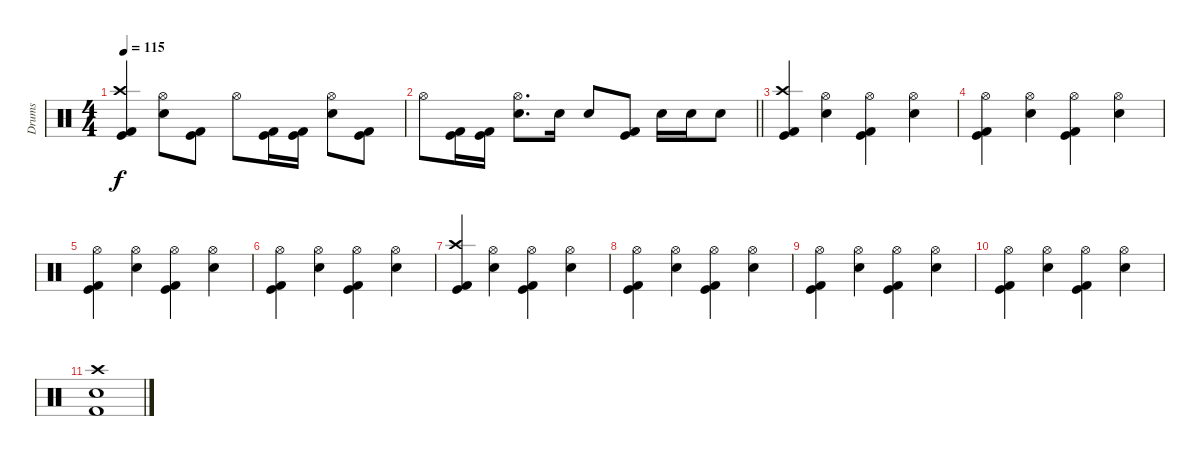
\track ("Drums" "Drums") {instrument percussion}
\staff {score}
\articulation defaults
\ts (4 4)
\tempo 115
\clef neutral
\ks c
("Kick (hit) 2" "Crash high (hit)" "Kick (hit)").4{dy f} ("Electric Snare (hit)" "Hi-Hat (open)").8 ("Kick (hit) 2" "Kick (hit)").8 "Hi-Hat (open)".8 ("Kick (hit) 2" "Kick (hit)").16 ("Kick (hit) 2" "Kick (hit)").16 ("Electric Snare (hit)" "Hi-Hat (open)").8 ("Kick (hit) 2" "Kick (hit)").8 |
\barLineRight lightlight "Hi-Hat (open)".8
("Kick (hit) 2" "Kick (hit)").16 ("Kick (hit) 2" "Kick (hit)").16 ("Electric Snare (hit)" "Hi-Hat (open)").8{d} "Electric Snare (hit)".16 "Electric Snare (hit)".8 ("Kick (hit) 2" "Kick (hit)").8 "Electric Snare (hit)".16 "Electric Snare (hit)".16 "Electric Snare (hit)".8 |
\section ("" "")
("Kick (hit) 2" "Crash high (hit)" "Kick (hit)").4 ("Electric Snare (hit)" "Hi-Hat (open)").4 ("Kick (hit) 2" "Hi-Hat (open)" "Kick (hit)").4 ("Electric Snare (hit)" "Hi-Hat (open)").4 |
("Kick (hit) 2" "Hi-Hat (open)" "Kick (hit)").4 ("Electric Snare (hit)" "Hi-Hat (open)").4 ("Kick (hit) 2" "Hi-Hat (open)" "Kick (hit)").4 ("Electric Snare (hit)" "Hi-Hat (open)").4 |
("Kick (hit) 2" "Hi-Hat (open)" "Kick (hit)").4 ("Electric Snare (hit)" "Hi-Hat (open)").4 ("Kick (hit) 2" "Hi-Hat (open)" "Kick (hit)").4 ("Electric Snare (hit)" "Hi-Hat (open)").4 |
("Kick (hit) 2" "Hi-Hat (open)" "Kick (hit)").4 ("Electric Snare (hit)" "Hi-Hat (open)").4 ("Kick (hit) 2" "Hi-Hat (open)" "Kick (hit)").4 ("Electric Snare (hit)" "Hi-Hat (open)").4 |
("Kick (hit) 2" "Crash high (hit)" "Kick (hit)").4 ("Electric Snare (hit)" "Hi-Hat (open)").4 ("Kick (hit) 2" "Hi-Hat (open)" "Kick (hit)").4 ("Electric Snare (hit)" "Hi-Hat (open)").4 |
("Kick (hit) 2" "Hi-Hat (open)" "Kick (hit)").4 ("Electric Snare (hit)" "Hi-Hat (open)").4 ("Kick (hit) 2" "Hi-Hat (open)" "Kick (hit)").4 ("Electric Snare (hit)" "Hi-Hat (open)").4 |
("Kick (hit) 2" "Hi-Hat (open)" "Kick (hit)").4 ("Electric Snare (hit)" "Hi-Hat (open)").4 ("Kick (hit) 2" "Hi-Hat (open)" "Kick (hit)").4 ("Electric Snare (hit)" "Hi-Hat (open)").4 |
("Kick (hit) 2" "Hi-Hat (open)" "Kick (hit)").4 ("Electric Snare (hit)" "Hi-Hat (open)").4 ("Kick (hit) 2" "Hi-Hat (open)" "Kick (hit)").4 ("Electric Snare (hit)" "Hi-Hat (open)").4 |
("Kick (hit) 2" "Electric Snare (hit)" "Crash high (hit)").1
